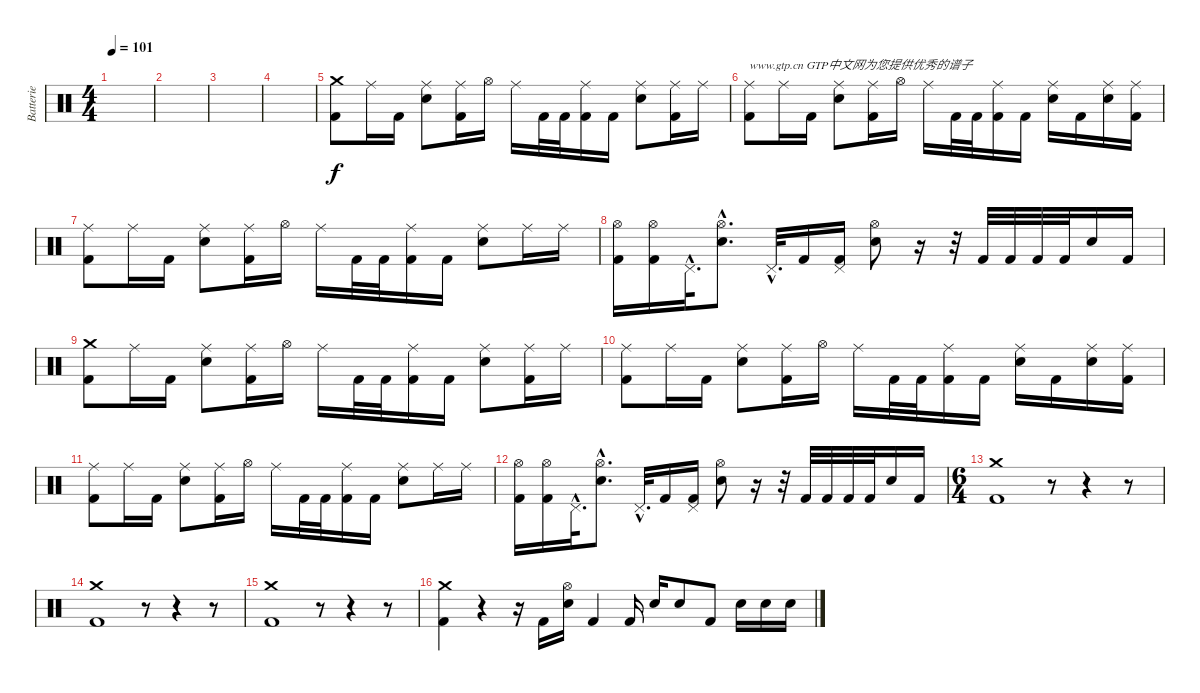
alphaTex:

\track ("Batterie" "Batterie") {instrument percussion}
\staff {score}
\articulation defaults
\ts (4 4)
\tempo 101
\clef neutral
\ks c
|
|
|
|
("Crash medium (hit)" "Kick (hit) 2").8 "Ride (middle)".16 "Kick (hit) 2".16 ("Ride (middle)" "Electric Snare (hit)").8 ("Ride (middle)" "Kick (hit) 2").16 "Hi-Hat (open)".16 "Ride (middle)".16 "Kick (hit) 2".32 "Kick (hit) 2".32 ("Ride (middle)" "Kick (hit) 2").16 "Kick (hit) 2".16 ("Ride (middle)" "Electric Snare (hit)").8 ("Ride (middle)" "Kick (hit) 2").16 "Ride (middle)".16 |
("Ride (middle)" "Kick (hit) 2").8{txt "www.gtp.cn GTP中文网为您提供优秀的谱子"} "Ride (middle)".16 "Kick (hit) 2".16 ("Ride (middle)" "Electric Snare (hit)").8 ("Ride (middle)" "Kick (hit) 2").16 "Hi-Hat (open)".16 "Ride (middle)".16 "Kick (hit) 2".32 "Kick (hit) 2".32 ("Ride (middle)" "Kick (hit) 2").16 "Kick (hit) 2".16 ("Ride (middle)" "Electric Snare (hit)").16 "Kick (hit) 2".16 ("Ride (middle)" "Electric Snare (hit)").16 ("Ride (middle)" "Kick (hit) 2").16 |
("Ride (middle)" "Kick (hit) 2").8 "Ride (middle)".16 "Kick (hit) 2".16 ("Ride (middle)" "Electric Snare (hit)").8 ("Ride (middle)" "Kick (hit) 2").16 "Hi-Hat (open)".16 "Ride (middle)".16 "Kick (hit) 2".32 "Kick (hit) 2".32 ("Ride (middle)" "Kick (hit) 2").16 "Kick (hit) 2".16 ("Ride (middle)" "Electric Snare (hit)").8 "Ride (middle)".16 "Ride (middle)".16 |
("Hi-Hat (open)" "Kick (hit) 2").16 ("Hi-Hat (open)" "Kick (hit) 2").16 "Pedal Hi-Hat (hit)"{hac}.32{d} ("Hi-Hat (open)"{hac} "Electric Snare (hit)"{hac}).8{d} "Pedal Hi-Hat (hit)"{hac}.32{d} "Kick (hit) 2".16 ("Pedal Hi-Hat (hit)" "Kick (hit) 2").16 ("Hi-Hat (open)" "Electric Snare (hit)").8 r.16 r.32 "Kick (hit) 2".32 "Kick (hit) 2".32 "Kick (hit) 2".32 "Kick (hit) 2".32 "Electric Snare (hit)".16 "Kick (hit) 2".16 |
("Crash medium (hit)" "Kick (hit) 2").8 "Ride (middle)".16 "Kick (hit) 2".16 ("Ride (middle)" "Electric Snare (hit)").8 ("Ride (middle)" "Kick (hit) 2").16 "Hi-Hat (open)".16 "Ride (middle)".16 "Kick (hit) 2".32 "Kick (hit) 2".32 ("Ride (middle)" "Kick (hit) 2").16 "Kick (hit) 2".16 ("Ride (middle)" "Electric Snare (hit)").8 ("Ride (middle)" "Kick (hit) 2").16 "Ride (middle)".16 |
("Ride (middle)" "Kick (hit) 2").8 "Ride (middle)".16 "Kick (hit) 2".16 ("Ride (middle)" "Electric Snare (hit)").8 ("Ride (middle)" "Kick (hit) 2").16 "Hi-Hat (open)".16 "Ride (middle)".16 "Kick (hit) 2".32 "Kick (hit) 2".32 ("Ride (middle)" "Kick (hit) 2").16 "Kick (hit) 2".16 ("Ride (middle)" "Electric Snare (hit)").16 "Kick (hit) 2".16 ("Ride (middle)" "Electric Snare (hit)").16 ("Ride (middle)" "Kick (hit) 2").16 |
("Ride (middle)" "Kick (hit) 2").8 "Ride (middle)".16 "Kick (hit) 2".16 ("Ride (middle)" "Electric Snare (hit)").8 ("Ride (middle)" "Kick (hit) 2").16 "Hi-Hat (open)".16 "Ride (middle)".16 "Kick (hit) 2".32 "Kick (hit) 2".32 ("Ride (middle)" "Kick (hit) 2").16 "Kick (hit) 2".16 ("Ride (middle)" "Electric Snare (hit)").8 "Ride (middle)".16 "Ride (middle)".16 |
("Hi-Hat (open)" "Kick (hit) 2").16 ("Hi-Hat (open)" "Kick (hit) 2").16 "Pedal Hi-Hat (hit)"{hac}.32{d} ("Hi-Hat (open)"{hac} "Electric Snare (hit)"{hac}).8{d} "Pedal Hi-Hat (hit)"{hac}.32{d} "Kick (hit) 2".16 ("Pedal Hi-Hat (hit)" "Kick (hit) 2").16 ("Hi-Hat (open)" "Electric Snare (hit)").8 r.16 r.32 "Kick (hit) 2".32 "Kick (hit) 2".32 "Kick (hit) 2".32 "Kick (hit) 2".32 "Electric Snare (hit)".16 "Kick (hit) 2".16 |
\ts (6 4)
("Crash medium (hit)" "Kick (hit) 2").1 r.8 r.4 r.8 |
("Crash medium (hit)" "Kick (hit) 2").1 r.8 r.4 r.8 |
("Crash medium (hit)" "Kick (hit) 2").1 r.8 r.4 r.8 |
("Crash medium (hit)" "Kick (hit) 2").4 r.4 r.16 "Kick (hit) 2".16 ("Hi-Hat (open)" "Electric Snare (hit)").16 "Kick (hit) 2".4 "Kick (hit) 2".16 "Electric Snare (hit)".16 "Electric Snare (hit)".8 "Kick (hit) 2".8 "Electric Snare (hit)".16 "Electric Snare (hit)".16 "Electric Snare (hit)".16
